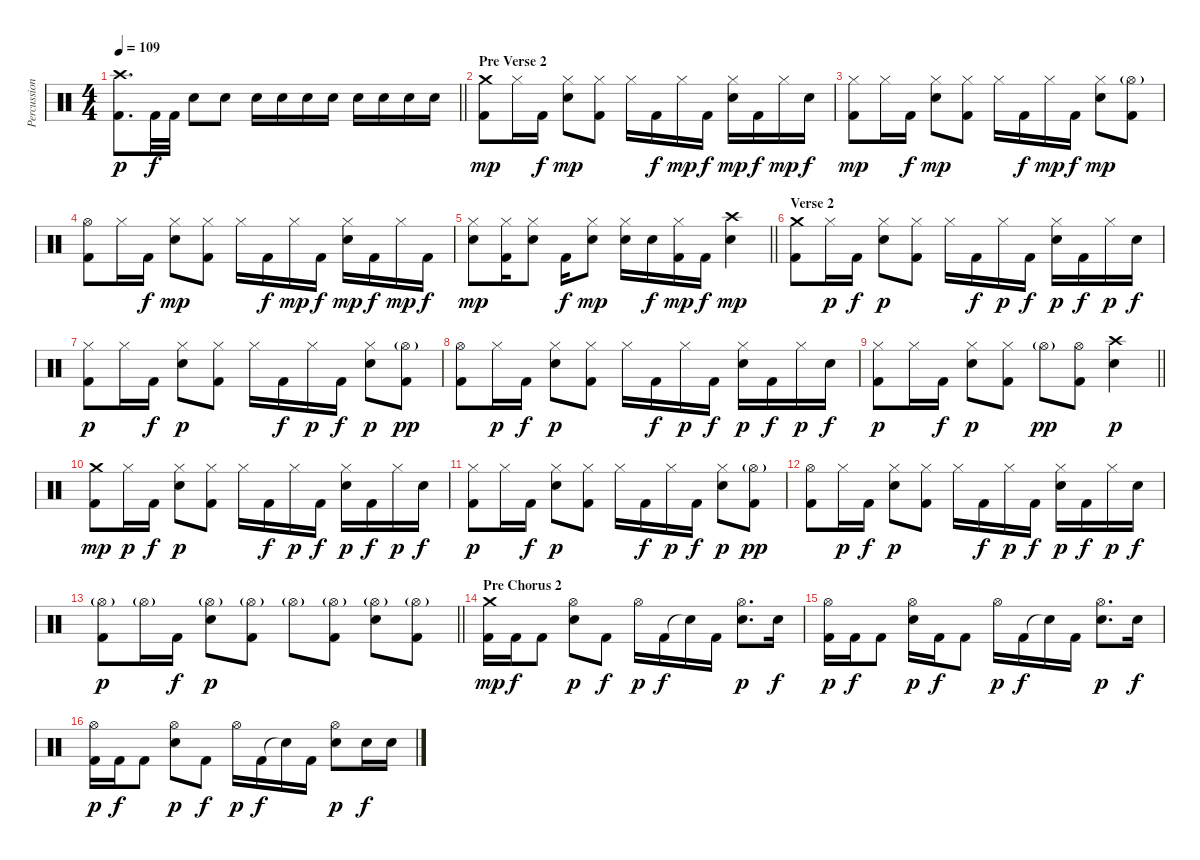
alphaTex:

\track ("Percussions" "Percussion") {instrument percussion}
\staff {score}
\articulation defaults
\ts (4 4)
\tempo 109
\clef neutral
\barLineRight lightlight
\ks c
("Crash high (hit)" "Kick (hit) 2").8{d dy p} "Kick (hit) 2".32{dy f} "Kick (hit) 2".32 "Electric Snare (hit)".8 "Electric Snare (hit)".8 "Electric Snare (hit)".16 "Electric Snare (hit)".16 "Electric Snare (hit)".16 "Electric Snare (hit)".16 "Electric Snare (hit)".16 "Electric Snare (hit)".16 "Electric Snare (hit)".16 "Electric Snare (hit)".16 |
\section ("" "Pre Verse 2")
("Crash medium (hit)" "Kick (hit) 2").8{dy mp} "Hi-Hat (closed)".16 "Kick (hit) 2".16{dy f} ("Hi-Hat (closed)" "Electric Snare (hit)").8{dy mp} ("Hi-Hat (closed)" "Kick (hit) 2").8 "Hi-Hat (closed)".16 "Kick (hit) 2".16{dy f} "Hi-Hat (closed)".16{dy mp} "Kick (hit) 2".16{dy f} ("Hi-Hat (closed)" "Electric Snare (hit)").16{dy mp} "Kick (hit) 2".16{dy f} "Hi-Hat (closed)".16{dy mp} "Electric Snare (hit)".16{dy f} |
("Hi-Hat (closed)" "Kick (hit) 2").8{dy mp} "Hi-Hat (closed)".16 "Kick (hit) 2".16{dy f} ("Hi-Hat (closed)" "Electric Snare (hit)").8{dy mp} ("Hi-Hat (closed)" "Kick (hit) 2").8 "Hi-Hat (closed)".16 "Kick (hit) 2".16{dy f} "Hi-Hat (closed)".16{dy mp} "Kick (hit) 2".16{dy f} ("Hi-Hat (closed)" "Electric Snare (hit)").8{dy mp} ("Hi-Hat (open)"{g} "Kick (hit) 2").8 |
("Hi-Hat (open)" "Kick (hit) 2").8 "Hi-Hat (closed)".16 "Kick (hit) 2".16{dy f} ("Hi-Hat (closed)" "Electric Snare (hit)").8{dy mp} ("Hi-Hat (closed)" "Kick (hit) 2").8 "Hi-Hat (closed)".16 "Kick (hit) 2".16{dy f} "Hi-Hat (closed)".16{dy mp} "Kick (hit) 2".16{dy f} ("Hi-Hat (closed)" "Electric Snare (hit)").16{dy mp} "Kick (hit) 2".16{dy f} "Hi-Hat (closed)".16{dy mp} "Kick (hit) 2".16{dy f} |
\barLineRight lightlight
("Hi-Hat (closed)" "Electric Snare (hit)").8{dy mp} ("Hi-Hat (closed)" "Kick (hit) 2").16 ("Hi-Hat (closed)" "Electric Snare (hit)").8 "Kick (hit) 2".16{dy f} ("Hi-Hat (closed)" "Electric Snare (hit)").8{dy mp} ("Hi-Hat (closed)" "Electric Snare (hit)").16 "Electric Snare (hit)".16{dy f} ("Hi-Hat (closed)" "Kick (hit) 2").16{dy mp} "Kick (hit) 2".16{dy f} ("Crash high (hit)" "Electric Snare (hit)").4{dy mp} |
\section ("" "Verse 2")
("Crash medium (hit)" "Kick (hit) 2").8 "Hi-Hat (closed)".16{dy p} "Kick (hit) 2".16{dy f} ("Hi-Hat (closed)" "Electric Snare (hit)").8{dy p} ("Hi-Hat (closed)" "Kick (hit) 2").8 "Hi-Hat (closed)".16 "Kick (hit) 2".16{dy f} "Hi-Hat (closed)".16{dy p} "Kick (hit) 2".16{dy f} ("Hi-Hat (closed)" "Electric Snare (hit)").16{dy p} "Kick (hit) 2".16{dy f} "Hi-Hat (closed)".16{dy p} "Electric Snare (hit)".16{dy f} |
("Hi-Hat (closed)" "Kick (hit) 2").8{dy p} "Hi-Hat (closed)".16 "Kick (hit) 2".16{dy f} ("Hi-Hat (closed)" "Electric Snare (hit)").8{dy p} ("Hi-Hat (closed)" "Kick (hit) 2").8 "Hi-Hat (closed)".16 "Kick (hit) 2".16{dy f} "Hi-Hat (closed)".16{dy p} "Kick (hit) 2".16{dy f} ("Hi-Hat (closed)" "Electric Snare (hit)").8{dy p} ("Hi-Hat (open)"{g} "Kick (hit) 2").8{dy pp} |
("Hi-Hat (open)" "Kick (hit) 2").8 "Hi-Hat (closed)".16{dy p} "Kick (hit) 2".16{dy f} ("Hi-Hat (closed)" "Electric Snare (hit)").8{dy p} ("Hi-Hat (closed)" "Kick (hit) 2").8 "Hi-Hat (closed)".16 "Kick (hit) 2".16{dy f} "Hi-Hat (closed)".16{dy p} "Kick (hit) 2".16{dy f} ("Hi-Hat (closed)" "Electric Snare (hit)").16{dy p} "Kick (hit) 2".16{dy f} "Hi-Hat (closed)".16{dy p} "Electric Snare (hit)".16{dy f} |
\barLineRight lightlight
("Hi-Hat (closed)" "Kick (hit) 2").8{dy p} "Hi-Hat (closed)".16 "Kick (hit) 2".16{dy f} ("Hi-Hat (closed)" "Electric Snare (hit)").8{dy p} ("Hi-Hat (closed)" "Kick (hit) 2").8 "Hi-Hat (open)"{g}.8{dy pp} ("Hi-Hat (open)" "Kick (hit) 2").8 ("Crash high (hit)" "Electric Snare (hit)").4{dy p} |
("Crash medium (hit)" "Kick (hit) 2").8{dy mp} "Hi-Hat (closed)".16{dy p} "Kick (hit) 2".16{dy f} ("Hi-Hat (closed)" "Electric Snare (hit)").8{dy p} ("Hi-Hat (closed)" "Kick (hit) 2").8 "Hi-Hat (closed)".16 "Kick (hit) 2".16{dy f} "Hi-Hat (closed)".16{dy p} "Kick (hit) 2".16{dy f} ("Hi-Hat (closed)" "Electric Snare (hit)").16{dy p} "Kick (hit) 2".16{dy f} "Hi-Hat (closed)".16{dy p} "Electric Snare (hit)".16{dy f} |
("Hi-Hat (closed)" "Kick (hit) 2").8{dy p} "Hi-Hat (closed)".16 "Kick (hit) 2".16{dy f} ("Hi-Hat (closed)" "Electric Snare (hit)").8{dy p} ("Hi-Hat (closed)" "Kick (hit) 2").8 "Hi-Hat (closed)".16 "Kick (hit) 2".16{dy f} "Hi-Hat (closed)".16{dy p} "Kick (hit) 2".16{dy f} ("Hi-Hat (closed)" "Electric Snare (hit)").8{dy p} ("Hi-Hat (open)"{g} "Kick (hit) 2").8{dy pp} |
("Hi-Hat (open)" "Kick (hit) 2").8 "Hi-Hat (closed)".16{dy p} "Kick (hit) 2".16{dy f} ("Hi-Hat (closed)" "Electric Snare (hit)").8{dy p} ("Hi-Hat (closed)" "Kick (hit) 2").8 "Hi-Hat (closed)".16 "Kick (hit) 2".16{dy f} "Hi-Hat (closed)".16{dy p} "Kick (hit) 2".16{dy f} ("Hi-Hat (closed)" "Electric Snare (hit)").16{dy p} "Kick (hit) 2".16{dy f} "Hi-Hat (closed)".16{dy p} "Electric Snare (hit)".16{dy f} |
\barLineRight lightlight
("Hi-Hat (open)"{g} "Kick (hit) 2").8{dy p} "Hi-Hat (open)"{g}.16 "Kick (hit) 2".16{dy f} ("Hi-Hat (open)"{g} "Electric Snare (hit)").8{dy p} ("Hi-Hat (open)"{g} "Kick (hit) 2").8 "Hi-Hat (open)"{g}.8 ("Hi-Hat (open)"{g} "Kick (hit) 2").8 ("Hi-Hat (open)"{g} "Electric Snare (hit)").8 ("Hi-Hat (open)"{g} "Kick (hit) 2").8 |
\section ("" "Pre Chorus 2")
("Crash medium (hit)" "Kick (hit) 2").16{dy mp} "Kick (hit) 2".16{dy f} "Kick (hit) 2".8 ("Hi-Hat (open)" "Electric Snare (hit)").8{dy p} "Kick (hit) 2".8{dy f} "Hi-Hat (open)".16{dy p} "Kick (hit) 2".16{dy f} "Snare (hit)"{t}.16 "Kick (hit) 2".16 ("Hi-Hat (open)" "Electric Snare (hit)").8{d dy p} "Electric Snare (hit)".16{dy f} |
("Hi-Hat (open)" "Kick (hit) 2").16{dy p} "Kick (hit) 2".16{dy f} "Kick (hit) 2".8 ("Hi-Hat (open)" "Electric Snare (hit)").16{dy p} "Kick (hit) 2".16{dy f} "Kick (hit) 2".8 "Hi-Hat (open)".16{dy p} "Kick (hit) 2".16{dy f} "Snare (hit)"{t}.16 "Kick (hit) 2".16 ("Hi-Hat (open)" "Electric Snare (hit)").8{d dy p} "Electric Snare (hit)".16{dy f} |
("Hi-Hat (open)" "Kick (hit) 2").16{dy p} "Kick (hit) 2".16{dy f} "Kick (hit) 2".8 ("Hi-Hat (open)" "Electric Snare (hit)").8{dy p} "Kick (hit) 2".8{dy f} "Hi-Hat (open)".16{dy p} "Kick (hit) 2".16{dy f} "Snare (hit)"{t}.16 "Kick (hit) 2".16 ("Hi-Hat (open)" "Electric Snare (hit)").8{dy p} "Electric Snare (hit)".16{dy f} "Electric Snare (hit)".16
